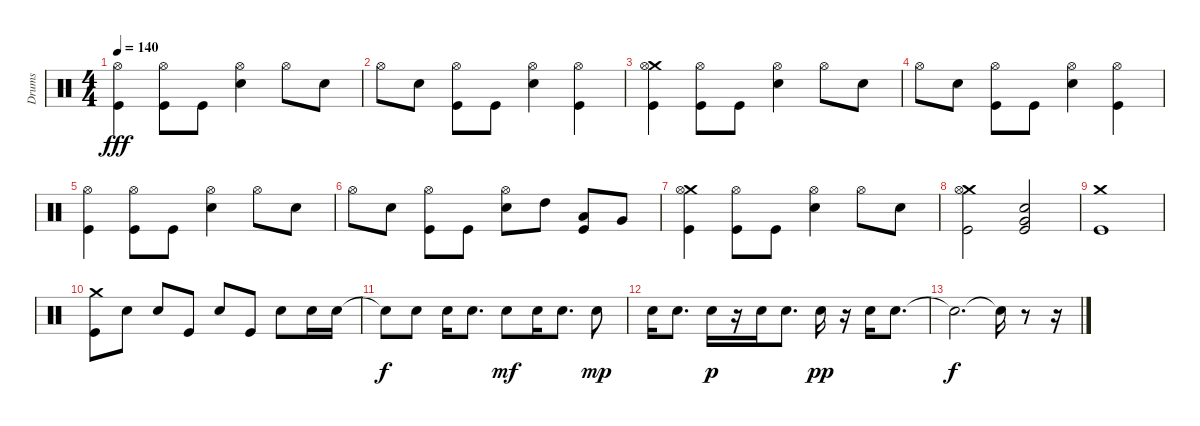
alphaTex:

\track ("Drums" "Drums") {instrument percussion}
\staff {score}
\articulation defaults
\ts (4 4)
\tempo 140
\clef neutral
\ks c
("Hi-Hat (open)" "Kick (hit)").4{dy fff} ("Hi-Hat (open)" "Kick (hit)").8 "Kick (hit)".8 ("Hi-Hat (open)" "Electric Snare (hit)").4 "Hi-Hat (open)".8 "Electric Snare (hit)".8 |
"Hi-Hat (open)".8 "Electric Snare (hit)".8 ("Hi-Hat (open)" "Kick (hit)").8 "Kick (hit)".8 ("Hi-Hat (open)" "Electric Snare (hit)").4 ("Hi-Hat (open)" "Kick (hit)").4 |
("Crash medium (hit)" "Hi-Hat (open)" "Kick (hit)").4 ("Hi-Hat (open)" "Kick (hit)").8 "Kick (hit)".8 ("Hi-Hat (open)" "Electric Snare (hit)").4 "Hi-Hat (open)".8 "Electric Snare (hit)".8 |
"Hi-Hat (open)".8 "Electric Snare (hit)".8 ("Hi-Hat (open)" "Kick (hit)").8 "Kick (hit)".8 ("Hi-Hat (open)" "Electric Snare (hit)").4 ("Hi-Hat (open)" "Kick (hit)").4 |
("Hi-Hat (open)" "Kick (hit)").4 ("Hi-Hat (open)" "Kick (hit)").8 "Kick (hit)".8 ("Hi-Hat (open)" "Electric Snare (hit)").4 "Hi-Hat (open)".8 "Electric Snare (hit)".8 |
"Hi-Hat (open)".8 "Electric Snare (hit)".8 ("Hi-Hat (open)" "Kick (hit)").8 "Kick (hit)".8 ("Hi-Hat (open)" "Electric Snare (hit)").8 "High Tom (hit)".8 ("Low Tom (hit)" "Kick (hit)").8 "Very Low Tom (hit)".8 |
("Crash medium (hit)" "Hi-Hat (open)" "Kick (hit)").4 ("Hi-Hat (open)" "Kick (hit)").8 "Kick (hit)".8 ("Hi-Hat (open)" "Electric Snare (hit)").4 "Hi-Hat (open)".8 "Electric Snare (hit)".8 |
("Crash medium (hit)" "Hi-Hat (open)" "Kick (hit)").2 ("Very Low Tom (hit)" "Electric Snare (hit)" "Kick (hit)").2 |
("Crash medium (hit)" "Kick (hit)").1 |
("Crash medium (hit)" "Kick (hit)").8 "Electric Snare (hit)".8 "Electric Snare (hit)".8 "Kick (hit)".8 "Electric Snare (hit)".8 "Kick (hit)".8 "Electric Snare (hit)".8 "Electric Snare (hit)".16 "Electric Snare (hit)".16 |
"Snare (hit)"{t}.8{dy f} "Electric Snare (hit)".8 "Electric Snare (hit)".16 "Electric Snare (hit)".8{d} "Electric Snare (hit)".8{dy mf} "Electric Snare (hit)".16 "Electric Snare (hit)".8{d} "Electric Snare (hit)".8{dy mp} |
"Electric Snare (hit)".16 "Electric Snare (hit)".8{d} "Electric Snare (hit)".16{dy p} r.16 "Electric Snare (hit)".16 "Electric Snare (hit)".8{d} "Electric Snare (hit)".16{dy pp} r.16 "Electric Snare (hit)".16 "Electric Snare (hit)".8{d} |
"Snare (hit)"{t}.2{d dy f} "Snare (hit)"{t}.16 r.8 r.16
